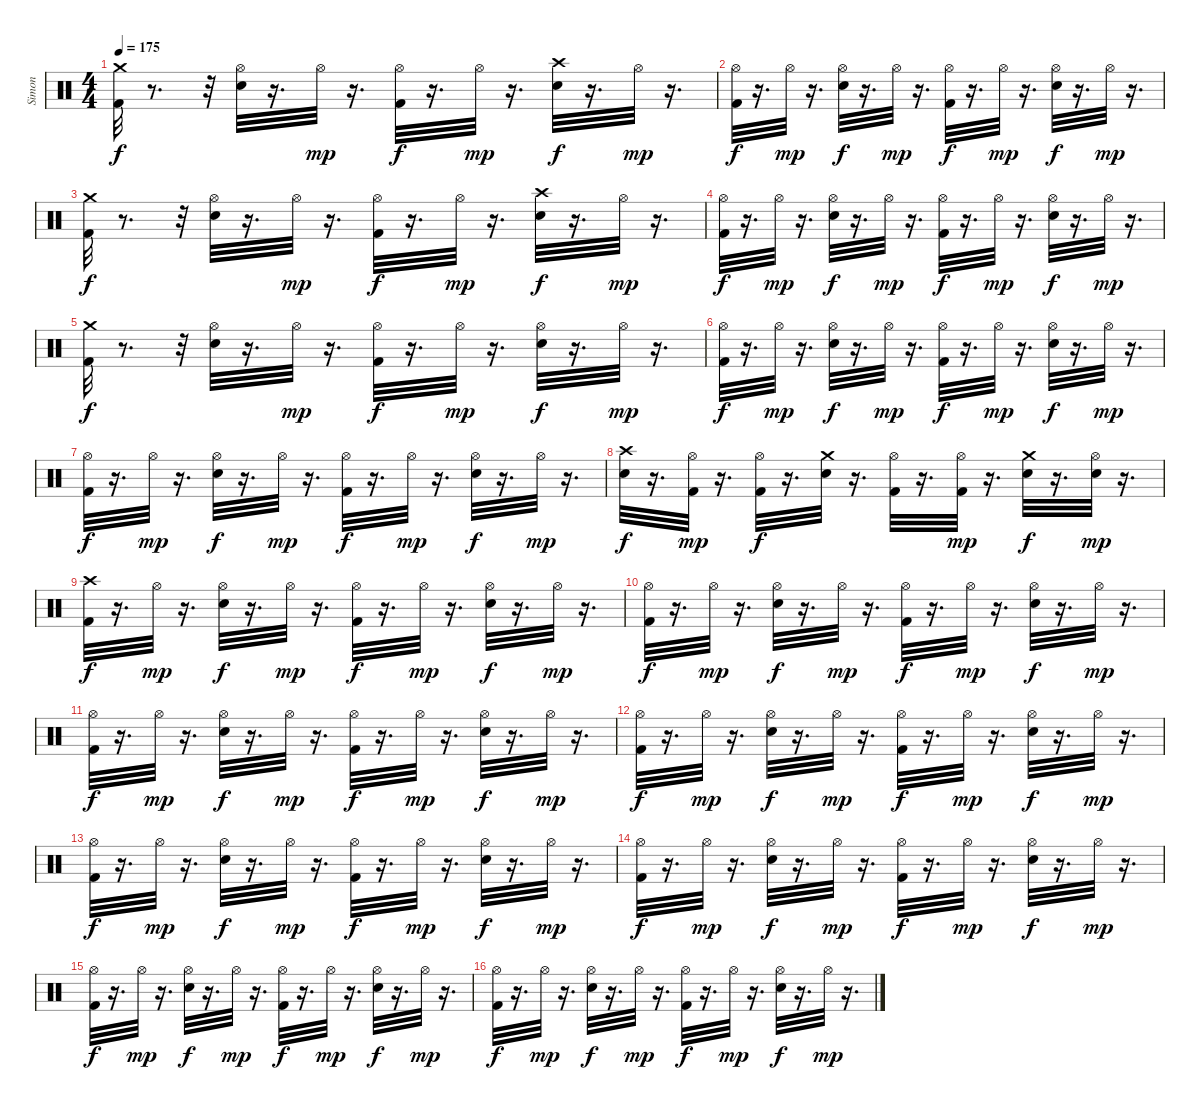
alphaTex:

\track ("Simon" "Simon") {instrument percussion}
\staff {score}
\articulation defaults
\ts (4 4)
\tempo 175
\clef neutral
\ks c
("Crash medium (hit)" "Kick (hit) 2").32{dy f} r.8{d} r.32 ("Hi-Hat (open)" "Electric Snare (hit)").32 r.16{d} "Hi-Hat (open)".32{dy mp} r.16{d} ("Hi-Hat (open)" "Kick (hit) 2").32{dy f} r.16{d} "Hi-Hat (open)".32{dy mp} r.16{d} ("Crash high (hit)" "Electric Snare (hit)").32{dy f} r.16{d} "Hi-Hat (open)".32{dy mp} r.16{d} |
("Hi-Hat (open)" "Kick (hit) 2").32{dy f} r.16{d} "Hi-Hat (open)".32{dy mp} r.16{d} ("Hi-Hat (open)" "Electric Snare (hit)").32{dy f} r.16{d} "Hi-Hat (open)".32{dy mp} r.16{d} ("Hi-Hat (open)" "Kick (hit) 2").32{dy f} r.16{d} "Hi-Hat (open)".32{dy mp} r.16{d} ("Hi-Hat (open)" "Electric Snare (hit)").32{dy f} r.16{d} "Hi-Hat (open)".32{dy mp} r.16{d} |
("Crash medium (hit)" "Kick (hit) 2").32{dy f} r.8{d} r.32 ("Hi-Hat (open)" "Electric Snare (hit)").32 r.16{d} "Hi-Hat (open)".32{dy mp} r.16{d} ("Hi-Hat (open)" "Kick (hit) 2").32{dy f} r.16{d} "Hi-Hat (open)".32{dy mp} r.16{d} ("Crash high (hit)" "Electric Snare (hit)").32{dy f} r.16{d} "Hi-Hat (open)".32{dy mp} r.16{d} |
("Hi-Hat (open)" "Kick (hit) 2").32{dy f} r.16{d} "Hi-Hat (open)".32{dy mp} r.16{d} ("Hi-Hat (open)" "Electric Snare (hit)").32{dy f} r.16{d} "Hi-Hat (open)".32{dy mp} r.16{d} ("Hi-Hat (open)" "Kick (hit) 2").32{dy f} r.16{d} "Hi-Hat (open)".32{dy mp} r.16{d} ("Hi-Hat (open)" "Electric Snare (hit)").32{dy f} r.16{d} "Hi-Hat (open)".32{dy mp} r.16{d} |
("Crash medium (hit)" "Kick (hit) 2").32{dy f} r.8{d} r.32 ("Hi-Hat (open)" "Electric Snare (hit)").32 r.16{d} "Hi-Hat (open)".32{dy mp} r.16{d} ("Hi-Hat (open)" "Kick (hit) 2").32{dy f} r.16{d} "Hi-Hat (open)".32{dy mp} r.16{d} ("Hi-Hat (open)" "Electric Snare (hit)").32{dy f} r.16{d} "Hi-Hat (open)".32{dy mp} r.16{d} |
("Hi-Hat (open)" "Kick (hit) 2").32{dy f} r.16{d} "Hi-Hat (open)".32{dy mp} r.16{d} ("Hi-Hat (open)" "Electric Snare (hit)").32{dy f} r.16{d} "Hi-Hat (open)".32{dy mp} r.16{d} ("Hi-Hat (open)" "Kick (hit) 2").32{dy f} r.16{d} "Hi-Hat (open)".32{dy mp} r.16{d} ("Hi-Hat (open)" "Electric Snare (hit)").32{dy f} r.16{d} "Hi-Hat (open)".32{dy mp} r.16{d} |
("Hi-Hat (open)" "Kick (hit) 2").32{dy f} r.16{d} "Hi-Hat (open)".32{dy mp} r.16{d} ("Hi-Hat (open)" "Electric Snare (hit)").32{dy f} r.16{d} "Hi-Hat (open)".32{dy mp} r.16{d} ("Hi-Hat (open)" "Kick (hit) 2").32{dy f} r.16{d} "Hi-Hat (open)".32{dy mp} r.16{d} ("Hi-Hat (open)" "Electric Snare (hit)").32{dy f} r.16{d} "Hi-Hat (open)".32{dy mp} r.16{d} |
("Electric Snare (hit)" "Crash high (hit)").32{dy f} r.16{d} ("Kick (hit) 2" "Hi-Hat (open)").32{dy mp} r.16{d} ("Kick (hit) 2" "Hi-Hat (open)").32{dy f} r.16{d} ("Crash medium (hit)" "Electric Snare (hit)").32 r.16{d} ("Hi-Hat (open)" "Kick (hit) 2").32 r.16{d} ("Kick (hit) 2" "Hi-Hat (open)").32{dy mp} r.16{d} ("Crash medium (hit)" "Electric Snare (hit)").32{dy f} r.16{d} ("Electric Snare (hit)" "Hi-Hat (open)").32{dy mp} r.16{d} |
("Crash high (hit)" "Kick (hit) 2").32{dy f} r.16{d} "Hi-Hat (open)".32{dy mp} r.16{d} ("Hi-Hat (open)" "Electric Snare (hit)").32{dy f} r.16{d} "Hi-Hat (open)".32{dy mp} r.16{d} ("Hi-Hat (open)" "Kick (hit) 2").32{dy f} r.16{d} "Hi-Hat (open)".32{dy mp} r.16{d} ("Hi-Hat (open)" "Electric Snare (hit)").32{dy f} r.16{d} "Hi-Hat (open)".32{dy mp} r.16{d} |
("Hi-Hat (open)" "Kick (hit) 2").32{dy f} r.16{d} "Hi-Hat (open)".32{dy mp} r.16{d} ("Hi-Hat (open)" "Electric Snare (hit)").32{dy f} r.16{d} "Hi-Hat (open)".32{dy mp} r.16{d} ("Hi-Hat (open)" "Kick (hit) 2").32{dy f} r.16{d} "Hi-Hat (open)".32{dy mp} r.16{d} ("Hi-Hat (open)" "Electric Snare (hit)").32{dy f} r.16{d} "Hi-Hat (open)".32{dy mp} r.16{d} |
("Hi-Hat (open)" "Kick (hit) 2").32{dy f} r.16{d} "Hi-Hat (open)".32{dy mp} r.16{d} ("Hi-Hat (open)" "Electric Snare (hit)").32{dy f} r.16{d} "Hi-Hat (open)".32{dy mp} r.16{d} ("Hi-Hat (open)" "Kick (hit) 2").32{dy f} r.16{d} "Hi-Hat (open)".32{dy mp} r.16{d} ("Hi-Hat (open)" "Electric Snare (hit)").32{dy f} r.16{d} "Hi-Hat (open)".32{dy mp} r.16{d} |
("Hi-Hat (open)" "Kick (hit) 2").32{dy f} r.16{d} "Hi-Hat (open)".32{dy mp} r.16{d} ("Hi-Hat (open)" "Electric Snare (hit)").32{dy f} r.16{d} "Hi-Hat (open)".32{dy mp} r.16{d} ("Hi-Hat (open)" "Kick (hit) 2").32{dy f} r.16{d} "Hi-Hat (open)".32{dy mp} r.16{d} ("Hi-Hat (open)" "Electric Snare (hit)").32{dy f} r.16{d} "Hi-Hat (open)".32{dy mp} r.16{d} |
("Hi-Hat (open)" "Kick (hit) 2").32{dy f} r.16{d} "Hi-Hat (open)".32{dy mp} r.16{d} ("Hi-Hat (open)" "Electric Snare (hit)").32{dy f} r.16{d} "Hi-Hat (open)".32{dy mp} r.16{d} ("Hi-Hat (open)" "Kick (hit) 2").32{dy f} r.16{d} "Hi-Hat (open)".32{dy mp} r.16{d} ("Hi-Hat (open)" "Electric Snare (hit)").32{dy f} r.16{d} "Hi-Hat (open)".32{dy mp} r.16{d} |
("Hi-Hat (open)" "Kick (hit) 2").32{dy f} r.16{d} "Hi-Hat (open)".32{dy mp} r.16{d} ("Hi-Hat (open)" "Electric Snare (hit)").32{dy f} r.16{d} "Hi-Hat (open)".32{dy mp} r.16{d} ("Hi-Hat (open)" "Kick (hit) 2").32{dy f} r.16{d} "Hi-Hat (open)".32{dy mp} r.16{d} ("Hi-Hat (open)" "Electric Snare (hit)").32{dy f} r.16{d} "Hi-Hat (open)".32{dy mp} r.16{d} |
("Hi-Hat (open)" "Kick (hit) 2").32{dy f} r.16{d} "Hi-Hat (open)".32{dy mp} r.16{d} ("Hi-Hat (open)" "Electric Snare (hit)").32{dy f} r.16{d} "Hi-Hat (open)".32{dy mp} r.16{d} ("Hi-Hat (open)" "Kick (hit) 2").32{dy f} r.16{d} "Hi-Hat (open)".32{dy mp} r.16{d} ("Hi-Hat (open)" "Electric Snare (hit)").32{dy f} r.16{d} "Hi-Hat (open)".32{dy mp} r.16{d} |
("Hi-Hat (open)" "Kick (hit) 2").32{dy f} r.16{d} "Hi-Hat (open)".32{dy mp} r.16{d} ("Hi-Hat (open)" "Electric Snare (hit)").32{dy f} r.16{d} "Hi-Hat (open)".32{dy mp} r.16{d} ("Hi-Hat (open)" "Kick (hit) 2").32{dy f} r.16{d} "Hi-Hat (open)".32{dy mp} r.16{d} ("Hi-Hat (open)" "Electric Snare (hit)").32{dy f} r.16{d} "Hi-Hat (open)".32{dy mp} r.16{d}
